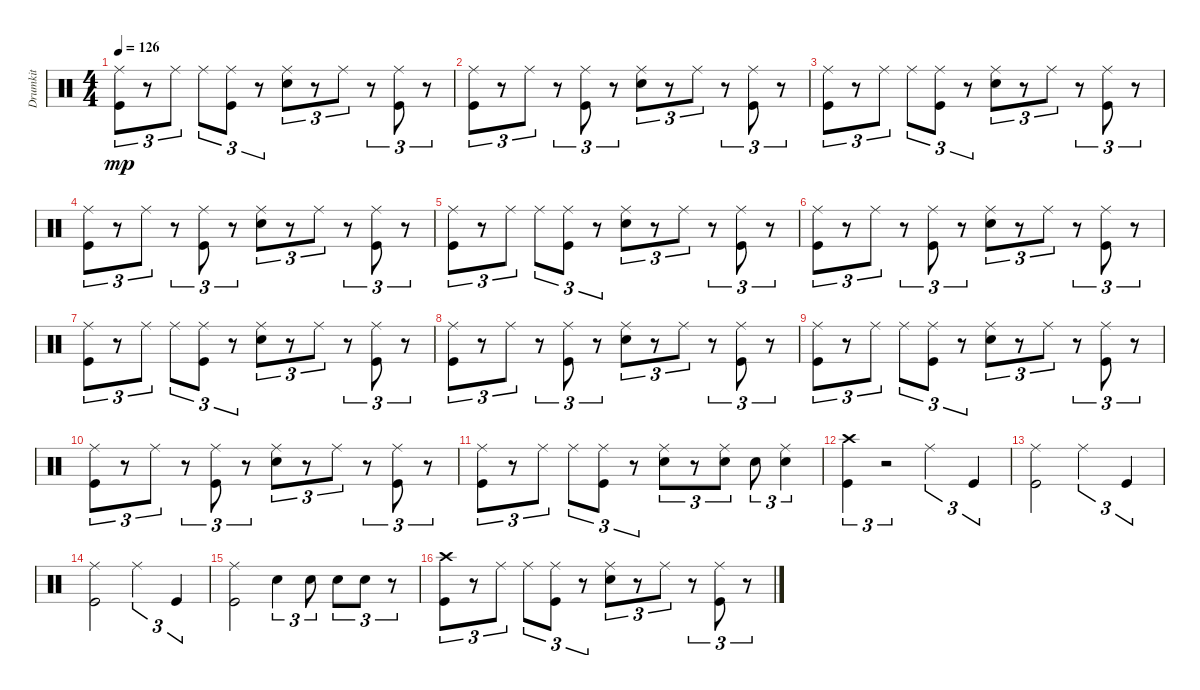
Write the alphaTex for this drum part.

\track ("Drumkit" "Drumkit") {instrument percussion}
\staff {score}
\articulation defaults
\ts (4 4)
\tempo 126
\clef neutral
\ks c
("Ride (middle)" "Kick (hit)").8{tu (3 2) dy mp} r.8{tu (3 2)} "Ride (middle)".8{tu (3 2)} "Ride (middle)".8{tu (3 2)} ("Kick (hit)" "Ride (middle)").8{tu (3 2)} r.8{tu (3 2)} ("Snare (hit) 2" "Ride (middle)").8{tu (3 2)} r.8{tu (3 2)} "Ride (middle)".8{tu (3 2)} r.8{tu (3 2)} ("Kick (hit)" "Ride (middle)").8{tu (3 2)} r.8{tu (3 2)} |
("Ride (middle)" "Kick (hit)").8{tu (3 2)} r.8{tu (3 2)} "Ride (middle)".8{tu (3 2)} r.8{tu (3 2)} ("Ride (middle)" "Kick (hit)").8{tu (3 2)} r.8{tu (3 2)} ("Ride (middle)" "Snare (hit) 2").8{tu (3 2)} r.8{tu (3 2)} "Ride (middle)".8{tu (3 2)} r.8{tu (3 2)} ("Ride (middle)" "Kick (hit)").8{tu (3 2)} r.8{tu (3 2)} |
("Ride (middle)" "Kick (hit)").8{tu (3 2)} r.8{tu (3 2)} "Ride (middle)".8{tu (3 2)} "Ride (middle)".8{tu (3 2)} ("Kick (hit)" "Ride (middle)").8{tu (3 2)} r.8{tu (3 2)} ("Snare (hit) 2" "Ride (middle)").8{tu (3 2)} r.8{tu (3 2)} "Ride (middle)".8{tu (3 2)} r.8{tu (3 2)} ("Kick (hit)" "Ride (middle)").8{tu (3 2)} r.8{tu (3 2)} |
("Ride (middle)" "Kick (hit)").8{tu (3 2)} r.8{tu (3 2)} "Ride (middle)".8{tu (3 2)} r.8{tu (3 2)} ("Ride (middle)" "Kick (hit)").8{tu (3 2)} r.8{tu (3 2)} ("Ride (middle)" "Snare (hit) 2").8{tu (3 2)} r.8{tu (3 2)} "Ride (middle)".8{tu (3 2)} r.8{tu (3 2)} ("Ride (middle)" "Kick (hit)").8{tu (3 2)} r.8{tu (3 2)} |
("Ride (middle)" "Kick (hit)").8{tu (3 2)} r.8{tu (3 2)} "Ride (middle)".8{tu (3 2)} "Ride (middle)".8{tu (3 2)} ("Kick (hit)" "Ride (middle)").8{tu (3 2)} r.8{tu (3 2)} ("Snare (hit) 2" "Ride (middle)").8{tu (3 2)} r.8{tu (3 2)} "Ride (middle)".8{tu (3 2)} r.8{tu (3 2)} ("Kick (hit)" "Ride (middle)").8{tu (3 2)} r.8{tu (3 2)} |
("Ride (middle)" "Kick (hit)").8{tu (3 2)} r.8{tu (3 2)} "Ride (middle)".8{tu (3 2)} r.8{tu (3 2)} ("Ride (middle)" "Kick (hit)").8{tu (3 2)} r.8{tu (3 2)} ("Ride (middle)" "Snare (hit) 2").8{tu (3 2)} r.8{tu (3 2)} "Ride (middle)".8{tu (3 2)} r.8{tu (3 2)} ("Ride (middle)" "Kick (hit)").8{tu (3 2)} r.8{tu (3 2)} |
("Ride (middle)" "Kick (hit)").8{tu (3 2)} r.8{tu (3 2)} "Ride (middle)".8{tu (3 2)} "Ride (middle)".8{tu (3 2)} ("Kick (hit)" "Ride (middle)").8{tu (3 2)} r.8{tu (3 2)} ("Snare (hit) 2" "Ride (middle)").8{tu (3 2)} r.8{tu (3 2)} "Ride (middle)".8{tu (3 2)} r.8{tu (3 2)} ("Kick (hit)" "Ride (middle)").8{tu (3 2)} r.8{tu (3 2)} |
("Ride (middle)" "Kick (hit)").8{tu (3 2)} r.8{tu (3 2)} "Ride (middle)".8{tu (3 2)} r.8{tu (3 2)} ("Ride (middle)" "Kick (hit)").8{tu (3 2)} r.8{tu (3 2)} ("Ride (middle)" "Snare (hit) 2").8{tu (3 2)} r.8{tu (3 2)} "Ride (middle)".8{tu (3 2)} r.8{tu (3 2)} ("Ride (middle)" "Kick (hit)").8{tu (3 2)} r.8{tu (3 2)} |
("Ride (middle)" "Kick (hit)").8{tu (3 2)} r.8{tu (3 2)} "Ride (middle)".8{tu (3 2)} "Ride (middle)".8{tu (3 2)} ("Kick (hit)" "Ride (middle)").8{tu (3 2)} r.8{tu (3 2)} ("Snare (hit) 2" "Ride (middle)").8{tu (3 2)} r.8{tu (3 2)} "Ride (middle)".8{tu (3 2)} r.8{tu (3 2)} ("Kick (hit)" "Ride (middle)").8{tu (3 2)} r.8{tu (3 2)} |
("Ride (middle)" "Kick (hit)").8{tu (3 2)} r.8{tu (3 2)} "Ride (middle)".8{tu (3 2)} r.8{tu (3 2)} ("Ride (middle)" "Kick (hit)").8{tu (3 2)} r.8{tu (3 2)} ("Ride (middle)" "Snare (hit) 2").8{tu (3 2)} r.8{tu (3 2)} "Ride (middle)".8{tu (3 2)} r.8{tu (3 2)} ("Ride (middle)" "Kick (hit)").8{tu (3 2)} r.8{tu (3 2)} |
("Ride (middle)" "Kick (hit)").8{tu (3 2)} r.8{tu (3 2)} "Ride (middle)".8{tu (3 2)} "Ride (middle)".8{tu (3 2)} ("Kick (hit)" "Ride (middle)").8{tu (3 2)} r.8{tu (3 2)} ("Snare (hit) 2" "Ride (middle)").8{tu (3 2)} r.8{tu (3 2)} ("Ride (middle)" "Snare (hit) 2").8{tu (3 2)} "Snare (hit) 2".8{tu (3 2)} ("Ride (middle)" "Snare (hit) 2").4{tu (3 2)} |
("Kick (hit)" "Crash high (hit)").4{tu (3 2)} r.2{tu (3 2)} "Ride (middle)".2{tu (3 2)} "Kick (hit)".4{tu (3 2)} |
("Kick (hit)" "Ride (middle)").2 "Ride (middle)".2{tu (3 2)} "Kick (hit)".4{tu (3 2)} |
("Kick (hit)" "Ride (middle)").2 "Ride (middle)".2{tu (3 2)} "Kick (hit)".4{tu (3 2)} |
("Kick (hit)" "Ride (middle)").2 "Snare (hit) 2".4{tu (3 2)} "Snare (hit) 2".8{tu (3 2)} "Snare (hit) 2".8{tu (3 2)} "Snare (hit) 2".8{tu (3 2)} r.8{tu (3 2)} |
("Crash high (hit)" "Kick (hit)").8{tu (3 2)} r.8{tu (3 2)} "Ride (middle)".8{tu (3 2)} "Ride (middle)".8{tu (3 2)} ("Kick (hit)" "Ride (middle)").8{tu (3 2)} r.8{tu (3 2)} ("Snare (hit) 2" "Ride (middle)").8{tu (3 2)} r.8{tu (3 2)} "Ride (middle)".8{tu (3 2)} r.8{tu (3 2)} ("Kick (hit)" "Ride (middle)").8{tu (3 2)} r.8{tu (3 2)}
